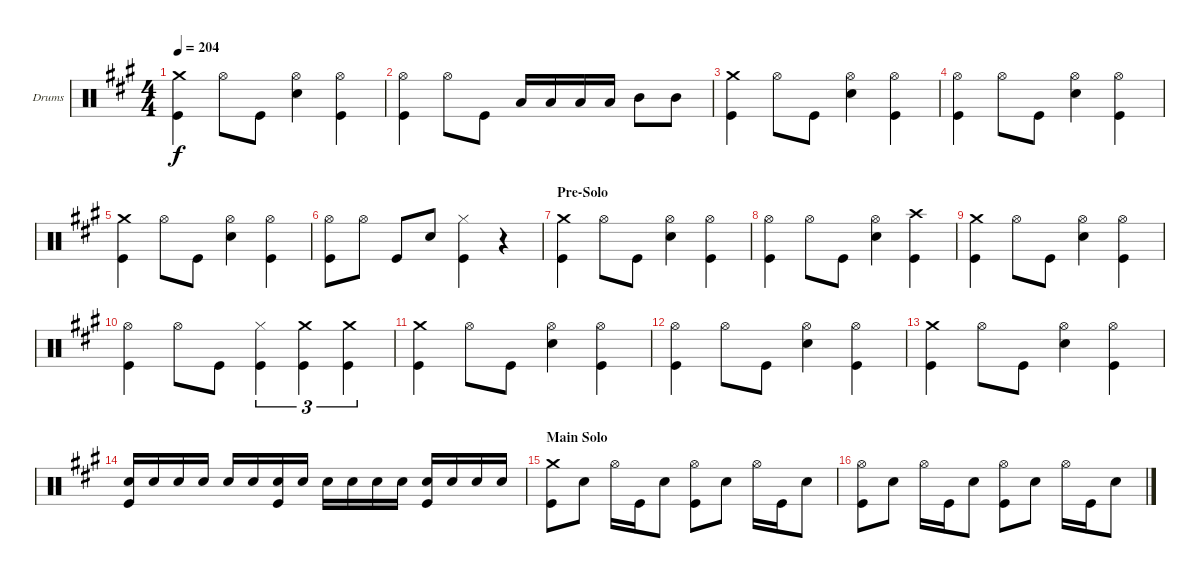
\bracketExtendMode groupsimilarinstruments
\firstSystemTrackNameOrientation horizontal
\otherSystemsTrackNameOrientation horizontal
\track ("Drumkit" "Drums") {instrument percussion}
\staff {score}
\articulation defaults
\ts (4 4)
\tempo 204
\clef neutral
\ks a
("Crash medium (hit)" "Kick (hit)").4{dy f} "Hi-Hat (open)".8 "Kick (hit)".8 ("Hi-Hat (open)" "Snare (hit) 2").4 ("Hi-Hat (open)" "Kick (hit)").4 |
("Hi-Hat (open)" "Kick (hit)").4 "Hi-Hat (open)".8 "Kick (hit)".8 "Low Tom (hit)".16 "Low Tom (hit)".16 "Low Tom (hit)".16 "Low Tom (hit)".16 "Mid Tom (hit)".8 "Mid Tom (hit)".8 |
("Crash medium (hit)" "Kick (hit)").4 "Hi-Hat (open)".8 "Kick (hit)".8 ("Hi-Hat (open)" "Snare (hit) 2").4 ("Hi-Hat (open)" "Kick (hit)").4 |
("Kick (hit)" "Hi-Hat (open)").4 "Hi-Hat (open)".8 "Kick (hit)".8 ("Hi-Hat (open)" "Snare (hit) 2").4 ("Kick (hit)" "Hi-Hat (open)").4 |
("Crash medium (hit)" "Kick (hit)").4 "Hi-Hat (open)".8 "Kick (hit)".8 ("Hi-Hat (open)" "Snare (hit) 2").4 ("Hi-Hat (open)" "Kick (hit)").4 |
("Hi-Hat (open)" "Kick (hit)").8 "Hi-Hat (open)".8 "Kick (hit)".8 "Snare (hit) 2".8 ("Hi-Hat (closed)" "Kick (hit)").4 r.4 |
\section ("" "Pre-Solo")
("Crash medium (hit)" "Kick (hit)").4 "Hi-Hat (open)".8 "Kick (hit)".8 ("Hi-Hat (open)" "Snare (hit) 2").4 ("Hi-Hat (open)" "Kick (hit)").4 |
("Kick (hit)" "Hi-Hat (open)").4 "Hi-Hat (open)".8 "Kick (hit)".8 ("Hi-Hat (open)" "Snare (hit) 2").4 ("Kick (hit)" "Crash high (hit)").4 |
("Crash medium (hit)" "Kick (hit)").4 "Hi-Hat (open)".8 "Kick (hit)".8 ("Hi-Hat (open)" "Snare (hit) 2").4 ("Hi-Hat (open)" "Kick (hit)").4 |
("Hi-Hat (open)" "Kick (hit)").4 "Hi-Hat (open)".8 "Kick (hit)".8 ("Hi-Hat (closed)" "Kick (hit)").4{tu (3 2)} ("Crash medium (hit)" "Kick (hit)").4{tu (3 2)} ("Crash medium (hit)" "Kick (hit)").4{tu (3 2)} |
("Crash medium (hit)" "Kick (hit)").4 "Hi-Hat (open)".8 "Kick (hit)".8 ("Hi-Hat (open)" "Snare (hit) 2").4 ("Hi-Hat (open)" "Kick (hit)").4 |
("Kick (hit)" "Hi-Hat (open)").4 "Hi-Hat (open)".8 "Kick (hit)".8 ("Hi-Hat (open)" "Snare (hit) 2").4 ("Kick (hit)" "Hi-Hat (open)").4 |
("Crash medium (hit)" "Kick (hit)").4 "Hi-Hat (open)".8 "Kick (hit)".8 ("Hi-Hat (open)" "Snare (hit) 2").4 ("Hi-Hat (open)" "Kick (hit)").4 |
("Snare (hit) 2" "Kick (hit)").16 "Snare (hit) 2".16 "Snare (hit) 2".16 "Snare (hit) 2".16 "Snare (hit) 2".16 "Snare (hit) 2".16 ("Snare (hit) 2" "Kick (hit)").16 "Snare (hit) 2".16 "Snare (hit) 2".16 "Snare (hit) 2".16 "Snare (hit) 2".16 "Snare (hit) 2".16 ("Snare (hit) 2" "Kick (hit)").16 "Snare (hit) 2".16 "Snare (hit) 2".16 "Snare (hit) 2".16 |
\section ("" "Main Solo")
("Crash medium (hit)" "Kick (hit)").8 "Snare (hit) 2".8 "Hi-Hat (open)".16 "Kick (hit)".16 "Snare (hit) 2".8 ("Hi-Hat (open)" "Kick (hit)").8 "Snare (hit) 2".8 "Hi-Hat (open)".16 "Kick (hit)".16 "Snare (hit) 2".8 |
("Hi-Hat (open)" "Kick (hit)").8 "Snare (hit) 2".8 "Hi-Hat (open)".16 "Kick (hit)".16 "Snare (hit) 2".8 ("Hi-Hat (open)" "Kick (hit)").8 "Snare (hit) 2".8 "Hi-Hat (open)".16 "Kick (hit)".16 "Snare (hit) 2".8
